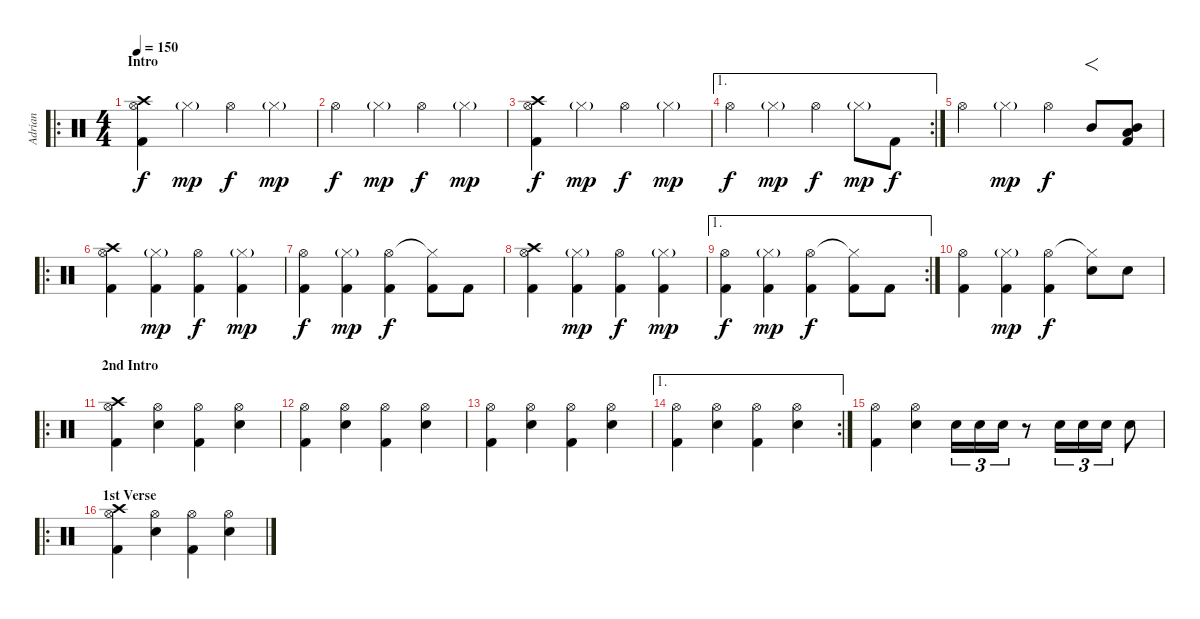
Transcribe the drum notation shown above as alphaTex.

\track ("Adrian" "Adrian") {instrument percussion}
\staff {score}
\articulation defaults
\ro
\ts (4 4)
\section ("" "Intro")
\tempo 150
\clef neutral
\ks c
("Hi-Hat (open)" "Crash high (hit)" "Kick (hit) 2").4{dy f} "Hi-Hat (closed)"{g}.4{dy mp} "Hi-Hat (open)".4{dy f} "Hi-Hat (closed)"{g}.4{dy mp} |
"Hi-Hat (open)".4{dy f} "Hi-Hat (closed)"{g}.4{dy mp} "Hi-Hat (open)".4{dy f} "Hi-Hat (closed)"{g}.4{dy mp} |
("Hi-Hat (open)" "Crash high (hit)" "Kick (hit) 2").4{dy f} "Hi-Hat (closed)"{g}.4{dy mp} "Hi-Hat (open)".4{dy f} "Hi-Hat (closed)"{g}.4{dy mp} |
\ae 1
\rc 2 "Hi-Hat (open)".4{dy f} "Hi-Hat (closed)"{g}.4{dy mp} "Hi-Hat (open)".4{dy f} "Hi-Hat (closed)"{g}.8{dy mp} "Kick (hit) 2".8{dy f}
|
"Hi-Hat (open)".4 "Hi-Hat (closed)"{g}.4{dy mp} "Hi-Hat (open)".4{dy f} "Mid Tom (hit)".8{f} ("Mid Tom (hit)" "Low Tom (hit)" "Kick (hit) 2").8 |
\ro
("Hi-Hat (open)" "Crash high (hit)" "Kick (hit) 2").4 ("Hi-Hat (closed)"{g} "Kick (hit) 2").4{dy mp} ("Hi-Hat (open)" "Kick (hit) 2").4{dy f} ("Hi-Hat (closed)"{g} "Kick (hit) 2").4{dy mp} |
("Hi-Hat (open)" "Kick (hit) 2").4{dy f} ("Hi-Hat (closed)"{g} "Kick (hit) 2").4{dy mp} ("Hi-Hat (open)" "Kick (hit) 2").4{dy f} ("Hi-Hat (closed)"{t} "Kick (hit) 2").8 "Kick (hit) 2".8 |
("Hi-Hat (open)" "Crash high (hit)" "Kick (hit) 2").4 ("Hi-Hat (closed)"{g} "Kick (hit) 2").4{dy mp} ("Hi-Hat (open)" "Kick (hit) 2").4{dy f} ("Hi-Hat (closed)"{g} "Kick (hit) 2").4{dy mp} |
\ae 1
\rc 2
("Hi-Hat (open)" "Kick (hit) 2").4{dy f} ("Hi-Hat (closed)"{g} "Kick (hit) 2").4{dy mp} ("Hi-Hat (open)" "Kick (hit) 2").4{dy f} ("Hi-Hat (closed)"{t} "Kick (hit) 2").8 "Kick (hit) 2".8 |
("Hi-Hat (open)" "Kick (hit) 2").4 ("Hi-Hat (closed)"{g} "Kick (hit) 2").4{dy mp} ("Hi-Hat (open)" "Kick (hit) 2").4{dy f} ("Hi-Hat (closed)"{t} "Electric Snare (hit)").8 "Electric Snare (hit)".8 |
\ro
\section ("" "2nd Intro")
("Hi-Hat (open)" "Crash high (hit)" "Kick (hit) 2").4 ("Hi-Hat (open)" "Electric Snare (hit)").4 ("Hi-Hat (open)" "Kick (hit) 2").4 ("Hi-Hat (open)" "Electric Snare (hit)").4 |
("Hi-Hat (open)" "Kick (hit) 2").4 ("Hi-Hat (open)" "Electric Snare (hit)").4 ("Hi-Hat (open)" "Kick (hit) 2").4 ("Hi-Hat (open)" "Electric Snare (hit)").4 |
("Hi-Hat (open)" "Kick (hit) 2").4 ("Hi-Hat (open)" "Electric Snare (hit)").4 ("Hi-Hat (open)" "Kick (hit) 2").4 ("Hi-Hat (open)" "Electric Snare (hit)").4 |
\ae 1
\rc 2
("Hi-Hat (open)" "Kick (hit) 2").4 ("Hi-Hat (open)" "Electric Snare (hit)").4 ("Hi-Hat (open)" "Kick (hit) 2").4 ("Hi-Hat (open)" "Electric Snare (hit)").4 |
("Hi-Hat (open)" "Kick (hit) 2").4 ("Hi-Hat (open)" "Electric Snare (hit)").4 "Electric Snare (hit)".16{tu (3 2)} "Electric Snare (hit)".16{tu (3 2)} "Electric Snare (hit)".16{tu (3 2)} r.8 "Electric Snare (hit)".16{tu (3 2)} "Electric Snare (hit)".16{tu (3 2)} "Electric Snare (hit)".16{tu (3 2)} "Electric Snare (hit)".8 |
\ro
\section ("" "1st Verse")
("Hi-Hat (open)" "Crash high (hit)" "Kick (hit) 2").4 ("Hi-Hat (open)" "Electric Snare (hit)").4 ("Hi-Hat (open)" "Kick (hit) 2").4 ("Hi-Hat (open)" "Electric Snare (hit)").4
